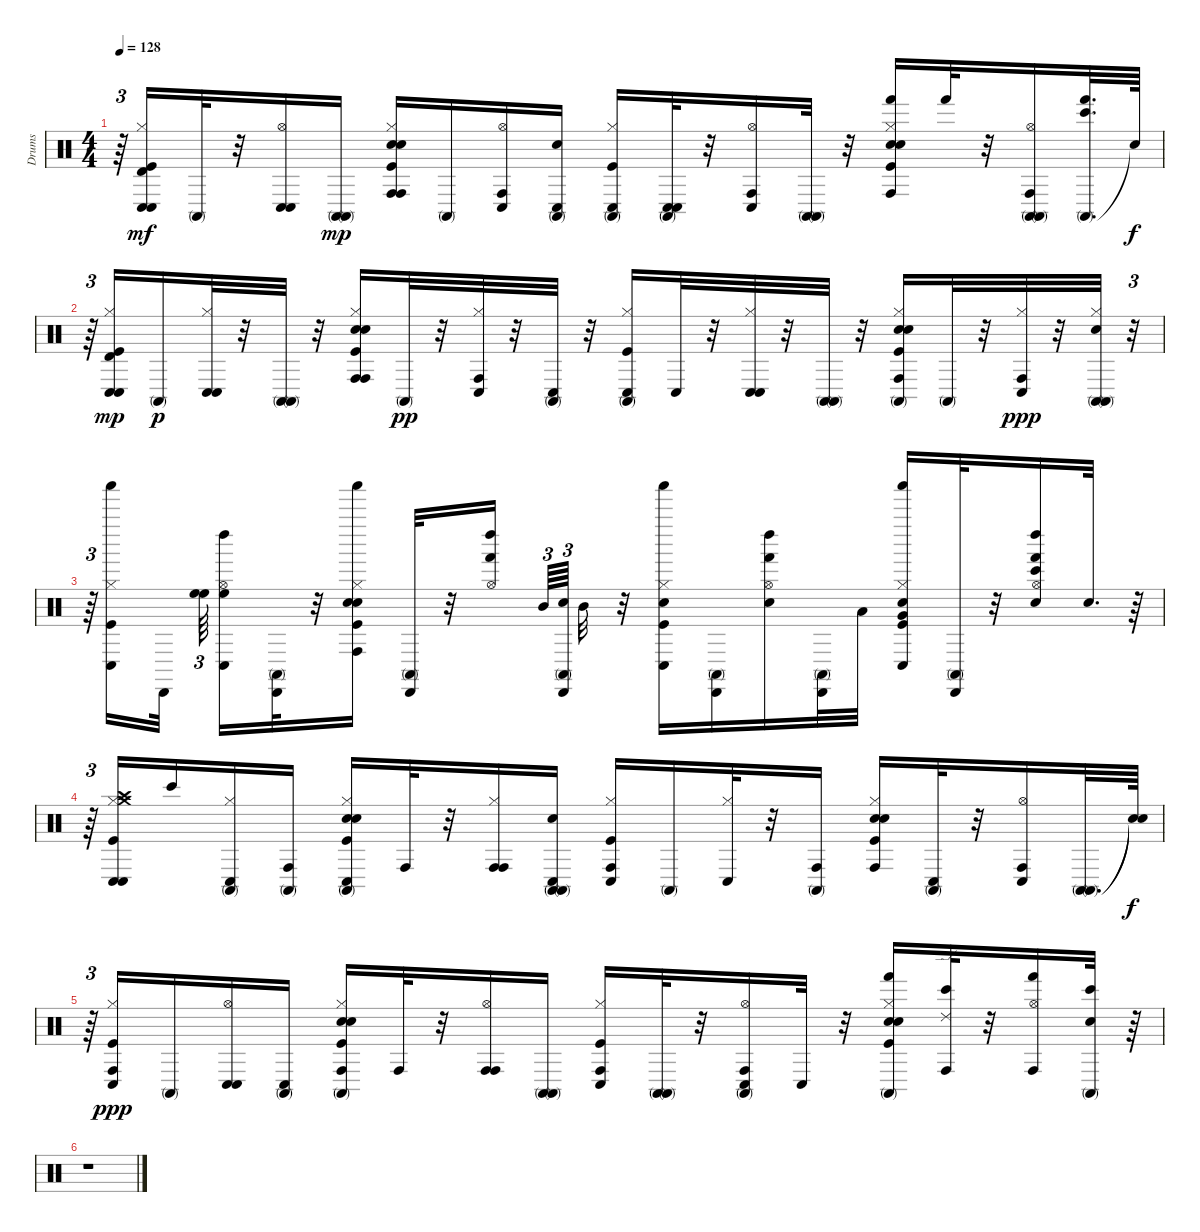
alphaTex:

\track ("Drums" "Drums") {instrument percussion}
\staff {score}
\articulation defaults
\ts (4 4)
\tempo 128
\clef neutral
\ks c
r.64{tu (3 2) dy mf} ("Kick (hit)" "Hi-Hat (closed)" "Conga low (hit)" "Timbale high (hit)" "Conga low (hit)").16 "Conga high (mute)".32 r.32 ("Hi-Hat (open)" "Conga low (hit)" "Conga low (hit)").16 ("Conga high (mute)" "Conga high (mute)").16{dy mp} ("Kick (hit)" "Snare (hit) 2" "Hand Clap (hit)" "Hi-Hat (closed)" "Conga high (hit)" "Conga high (hit)").16 "Conga high (mute)".16 ("Hi-Hat (open)" "Conga low (hit)" "Conga high (hit)").16 ("Snare (hit) 2" "Conga low (hit)" "Conga high (mute)").16 ("Kick (hit)" "Hi-Hat (closed)" "Conga high (mute)" "Conga low (hit)").16 ("Conga low (hit)" "Conga high (mute)" "Conga low (hit)").32 r.32 ("Hi-Hat (open)" "Conga low (hit)" "Conga high (hit)").16 ("Conga high (mute)" "Conga high (mute)").32 r.32 ("Kick (hit)" "Snare (hit) 2" "Hand Clap (hit)" "Hi-Hat (closed)" "Conga high (hit)" "Hand (hit)").16 "Hand (hit)".32 r.32 ("Hi-Hat (open)" "Conga high (mute)" "Conga high (hit)" "Conga high (mute)").16 ("Conga high (mute)" "Hand (hit)" "Bongo High (hit)").32{d} "Snare (hit)"{t}.64{dy f} |
r.64{tu (3 2)} ("Kick (hit)" "Hi-Hat (closed)" "Conga low (hit)" "Conga low (hit)" "Timbale high (hit)").16{dy mp} "Conga high (mute)".16{dy p} ("Hi-Hat (closed)" "Conga low (hit)" "Conga low (hit)").32 r.32 ("Conga high (mute)" "Conga high (mute)").32 r.32 ("Kick (hit)" "Snare (hit) 2" "Hand Clap (hit)" "Hi-Hat (closed)" "Conga high (hit)" "Conga high (hit)").16 "Conga high (mute)".32{dy pp} r.32 ("Hi-Hat (closed)" "Conga low (hit)" "Conga high (hit)").32 r.32 ("Conga low (hit)" "Conga high (mute)").32 r.32 ("Kick (hit)" "Hi-Hat (closed)" "Conga high (mute)" "Conga low (hit)").16 "Conga low (hit)".32 r.32 ("Hi-Hat (closed)" "Conga low (hit)" "Conga low (hit)").32 r.32 ("Conga high (mute)" "Conga high (mute)").32 r.32 ("Kick (hit)" "Snare (hit) 2" "Hand Clap (hit)" "Hi-Hat (closed)" "Conga high (hit)" "Conga high (mute)").16 "Conga high (mute)".32 r.32 ("Hi-Hat (closed)" "Conga low (hit)" "Conga high (hit)").32{dy ppp} r.32 ("Snare (hit) 2" "Hi-Hat (closed)" "Conga high (mute)" "Conga high (mute)").32 r.32{tu (3 2)} |
r.64{tu (3 2)} ("Kick (hit)" "Hi-Hat (closed)" "Shaker (hit)" "Conga low (hit)").16 "Cabasa (hit)".32{beam splitsecondary} ("High Floor Tom (hit)" "High Floor Tom (hit)").64{tu (3 2) beam splitsecondary} ("Hi-Hat (open)" "Left Maraca (hit)" "High Floor Tom (hit)" "Conga low (hit)").16 ("Cabasa (hit)" "Conga high (mute)").32 r.32 ("Kick (hit)" "Snare (hit) 2" "Hand Clap (hit)" "Hi-Hat (closed)" "Shaker (hit)" "Conga high (hit)").16 ("Cabasa (hit)" "Conga high (mute)").32 r.32 ("Hi-Hat (open)" "Left Maraca (hit)" "Hand (hit)").16{beam splitsecondary} "Mid Tom (hit)".64{tu (3 2)} ("Snare (hit) 2" "Cabasa (hit)" "Conga high (mute)").64{tu (3 2) beam splitsecondary} "Mid Tom (hit)".32 r.32 ("Kick (hit)" "Snare (hit) 2" "Hi-Hat (closed)" "Shaker (hit)" "Conga low (hit)").16 ("Cabasa (hit)" "Conga high (mute)").16 ("Snare (hit) 2" "Hi-Hat (open)" "Left Maraca (hit)" "Hand (hit)").16 ("Cabasa (hit)" "Conga high (mute)").32 "Low Tom (hit)".32 ("Kick (hit)" "Hand Clap (hit)" "Hi-Hat (closed)" "Shaker (hit)" "Conga low (hit)" "Very Low Tom (hit)").16 ("Cabasa (hit)" "Conga high (mute)").32 r.32 ("Snare (hit) 2" "Hi-Hat (open)" "Left Maraca (hit)" "Hand (hit)" "Bongo High (hit)").16 "Snare (hit) 2".32{d} r.64 |
r.64{tu (3 2)} ("Kick (hit)" "Hi-Hat (closed)" "Crash medium (hit)" "Crash high (hit)" "Conga low (hit)" "Conga low (hit)").16 "Bongo High (hit)".16 ("Hi-Hat (closed)" "Conga high (mute)" "Conga low (hit)").16 ("Conga high (hit)" "Conga high (mute)").16 ("Kick (hit)" "Snare (hit) 2" "Hand Clap (hit)" "Hi-Hat (closed)" "Conga high (mute)" "Conga low (hit)").16 "Conga high (hit)".32 r.32 ("Hi-Hat (closed)" "Conga high (hit)" "Conga high (hit)").16 ("Snare (hit) 2" "Conga high (mute)" "Conga high (mute)" "Conga low (hit)").16 ("Kick (hit)" "Hi-Hat (closed)" "Conga high (hit)" "Conga low (hit)").16 "Conga high (mute)".16 ("Hi-Hat (closed)" "Conga low (hit)").32 r.32 ("Conga high (hit)" "Conga high (mute)").16 ("Kick (hit)" "Snare (hit) 2" "Hand Clap (hit)" "Hi-Hat (closed)" "Conga high (hit)").16 ("Conga high (mute)" "Conga low (hit)").32 r.32 ("Hi-Hat (open)" "Conga low (hit)" "Conga high (hit)").16 ("Conga high (mute)" "Conga high (mute)").32{d} ("Snare (hit)"{t} "Snare (hit)"{t}).64{dy f} |
r.64{tu (3 2)} ("Kick (hit)" "Hi-Hat (closed)" "Conga high (hit)" "Conga low (hit)").16{dy ppp} "Conga high (mute)".16 ("Hi-Hat (open)" "Conga low (hit)" "Conga low (hit)").16 ("Conga low (hit)" "Conga high (mute)").16 ("Kick (hit)" "Snare (hit) 2" "Hand Clap (hit)" "Hi-Hat (closed)" "Conga high (mute)" "Conga high (hit)").16 "Conga high (hit)".32 r.32 ("Hi-Hat (open)" "Conga high (hit)" "Conga high (hit)").16 ("Conga high (mute)" "Conga high (mute)").16 ("Kick (hit)" "Hi-Hat (closed)" "Conga high (hit)" "Conga low (hit)").16 ("Conga high (mute)" "Conga high (mute)").32 r.32 ("Hi-Hat (open)" "Conga low (hit)" "Conga high (hit)" "Conga high (mute)").16 "Conga low (hit)".32 r.32 ("Kick (hit)" "Snare (hit) 2" "Hand Clap (hit)" "Hi-Hat (closed)" "Conga high (mute)" "Hand (hit)").16 ("Conga high (hit)" "Bongo High (hit)" "Ride (edge) 2").32 r.32 ("Hi-Hat (open)" "Conga high (hit)" "Hand (hit)").16 ("Snare (hit) 2" "Conga high (mute)" "Bongo High (hit)").32 r.64 |
r.1
